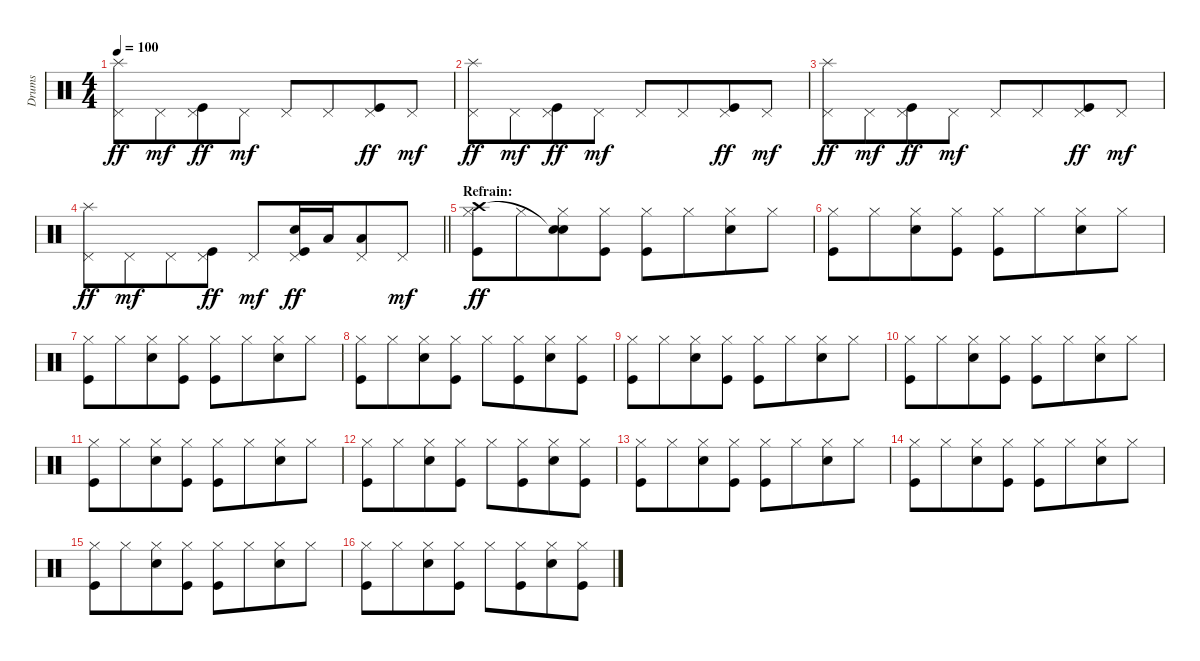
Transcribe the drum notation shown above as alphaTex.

\track ("Drums" "Drums") {instrument percussion}
\staff {score}
\articulation defaults
\ts (4 4)
\tempo 100
\clef neutral
\ks c
("Pedal Hi-Hat (hit)" "Splash (hit)").8{dy ff} "Pedal Hi-Hat (hit)".8{dy mf beam merge} ("Pedal Hi-Hat (hit)" "Kick (hit)").8{dy ff} "Pedal Hi-Hat (hit)".8{dy mf} "Pedal Hi-Hat (hit)".8 "Pedal Hi-Hat (hit)".8{beam merge} ("Pedal Hi-Hat (hit)" "Kick (hit)").8{dy ff} "Pedal Hi-Hat (hit)".8{dy mf} |
("Pedal Hi-Hat (hit)" "Splash (hit)").8{dy ff} "Pedal Hi-Hat (hit)".8{dy mf beam merge} ("Pedal Hi-Hat (hit)" "Kick (hit)").8{dy ff} "Pedal Hi-Hat (hit)".8{dy mf} "Pedal Hi-Hat (hit)".8 "Pedal Hi-Hat (hit)".8{beam merge} ("Pedal Hi-Hat (hit)" "Kick (hit)").8{dy ff} "Pedal Hi-Hat (hit)".8{dy mf} |
("Pedal Hi-Hat (hit)" "Splash (hit)").8{dy ff} "Pedal Hi-Hat (hit)".8{dy mf beam merge} ("Pedal Hi-Hat (hit)" "Kick (hit)").8{dy ff} "Pedal Hi-Hat (hit)".8{dy mf} "Pedal Hi-Hat (hit)".8 "Pedal Hi-Hat (hit)".8{beam merge} ("Pedal Hi-Hat (hit)" "Kick (hit)").8{dy ff} "Pedal Hi-Hat (hit)".8{dy mf} |
\barLineRight lightlight
("Pedal Hi-Hat (hit)" "Splash (hit)").8{dy ff} "Pedal Hi-Hat (hit)".8{dy mf beam merge} "Pedal Hi-Hat (hit)".8 ("Pedal Hi-Hat (hit)" "Kick (hit)").8{dy ff} "Pedal Hi-Hat (hit)".8{dy mf beam merge} ("Pedal Hi-Hat (hit)" "Snare (hit) 2" "Kick (hit)").16{dy ff beam merge} "Low Tom (hit)".16{beam merge} ("Pedal Hi-Hat (hit)" "Low Tom (hit)").8 "Pedal Hi-Hat (hit)".8{dy mf} |
\section ("" "Refrain:")
("Hi-Hat (closed)" "Crash high (hit)" "Kick (hit)").8{dy ff} "Hi-Hat (closed)".8{beam merge} ("Hi-Hat (closed)" "Snare (hit)"{t} "Snare (hit) 2").8 ("Hi-Hat (closed)" "Kick (hit)").8 ("Hi-Hat (closed)" "Kick (hit)").8 "Hi-Hat (closed)".8{beam merge} ("Hi-Hat (closed)" "Snare (hit) 2").8 "Hi-Hat (closed)".8 |
("Hi-Hat (closed)" "Kick (hit)").8 "Hi-Hat (closed)".8{beam merge} ("Hi-Hat (closed)" "Snare (hit) 2").8 ("Hi-Hat (closed)" "Kick (hit)").8 ("Hi-Hat (closed)" "Kick (hit)").8 "Hi-Hat (closed)".8{beam merge} ("Hi-Hat (closed)" "Snare (hit) 2").8 "Hi-Hat (closed)".8 |
("Hi-Hat (closed)" "Kick (hit)").8 "Hi-Hat (closed)".8{beam merge} ("Hi-Hat (closed)" "Snare (hit) 2").8 ("Hi-Hat (closed)" "Kick (hit)").8 ("Hi-Hat (closed)" "Kick (hit)").8 "Hi-Hat (closed)".8{beam merge} ("Hi-Hat (closed)" "Snare (hit) 2").8 "Hi-Hat (closed)".8 |
("Hi-Hat (closed)" "Kick (hit)").8 "Hi-Hat (closed)".8{beam merge} ("Hi-Hat (closed)" "Snare (hit) 2").8 ("Hi-Hat (closed)" "Kick (hit)").8 "Hi-Hat (closed)".8 ("Hi-Hat (closed)" "Kick (hit)").8{beam merge} ("Hi-Hat (closed)" "Snare (hit) 2").8 ("Hi-Hat (closed)" "Kick (hit)").8 |
("Hi-Hat (closed)" "Kick (hit)").8 "Hi-Hat (closed)".8{beam merge} ("Hi-Hat (closed)" "Snare (hit) 2").8 ("Hi-Hat (closed)" "Kick (hit)").8 ("Hi-Hat (closed)" "Kick (hit)").8 "Hi-Hat (closed)".8{beam merge} ("Hi-Hat (closed)" "Snare (hit) 2").8 "Hi-Hat (closed)".8 |
("Hi-Hat (closed)" "Kick (hit)").8 "Hi-Hat (closed)".8{beam merge} ("Hi-Hat (closed)" "Snare (hit) 2").8 ("Hi-Hat (closed)" "Kick (hit)").8 ("Hi-Hat (closed)" "Kick (hit)").8 "Hi-Hat (closed)".8{beam merge} ("Hi-Hat (closed)" "Snare (hit) 2").8 "Hi-Hat (closed)".8 |
("Hi-Hat (closed)" "Kick (hit)").8 "Hi-Hat (closed)".8{beam merge} ("Hi-Hat (closed)" "Snare (hit) 2").8 ("Hi-Hat (closed)" "Kick (hit)").8 ("Hi-Hat (closed)" "Kick (hit)").8 "Hi-Hat (closed)".8{beam merge} ("Hi-Hat (closed)" "Snare (hit) 2").8 "Hi-Hat (closed)".8 |
("Hi-Hat (closed)" "Kick (hit)").8 "Hi-Hat (closed)".8{beam merge} ("Hi-Hat (closed)" "Snare (hit) 2").8 ("Hi-Hat (closed)" "Kick (hit)").8 "Hi-Hat (closed)".8 ("Hi-Hat (closed)" "Kick (hit)").8{beam merge} ("Hi-Hat (closed)" "Snare (hit) 2").8 ("Hi-Hat (closed)" "Kick (hit)").8 |
("Hi-Hat (closed)" "Kick (hit)").8 "Hi-Hat (closed)".8{beam merge} ("Hi-Hat (closed)" "Snare (hit) 2").8 ("Hi-Hat (closed)" "Kick (hit)").8 ("Hi-Hat (closed)" "Kick (hit)").8 "Hi-Hat (closed)".8{beam merge} ("Hi-Hat (closed)" "Snare (hit) 2").8 "Hi-Hat (closed)".8 |
("Hi-Hat (closed)" "Kick (hit)").8 "Hi-Hat (closed)".8{beam merge} ("Hi-Hat (closed)" "Snare (hit) 2").8 ("Hi-Hat (closed)" "Kick (hit)").8 ("Hi-Hat (closed)" "Kick (hit)").8 "Hi-Hat (closed)".8{beam merge} ("Hi-Hat (closed)" "Snare (hit) 2").8 "Hi-Hat (closed)".8 |
("Hi-Hat (closed)" "Kick (hit)").8 "Hi-Hat (closed)".8{beam merge} ("Hi-Hat (closed)" "Snare (hit) 2").8 ("Hi-Hat (closed)" "Kick (hit)").8 ("Hi-Hat (closed)" "Kick (hit)").8 "Hi-Hat (closed)".8{beam merge} ("Hi-Hat (closed)" "Snare (hit) 2").8 "Hi-Hat (closed)".8 |
("Hi-Hat (closed)" "Kick (hit)").8 "Hi-Hat (closed)".8{beam merge} ("Hi-Hat (closed)" "Snare (hit) 2").8 ("Hi-Hat (closed)" "Kick (hit)").8 "Hi-Hat (closed)".8 ("Hi-Hat (closed)" "Kick (hit)").8{beam merge} ("Hi-Hat (closed)" "Snare (hit) 2").8 ("Hi-Hat (closed)" "Kick (hit)").8
